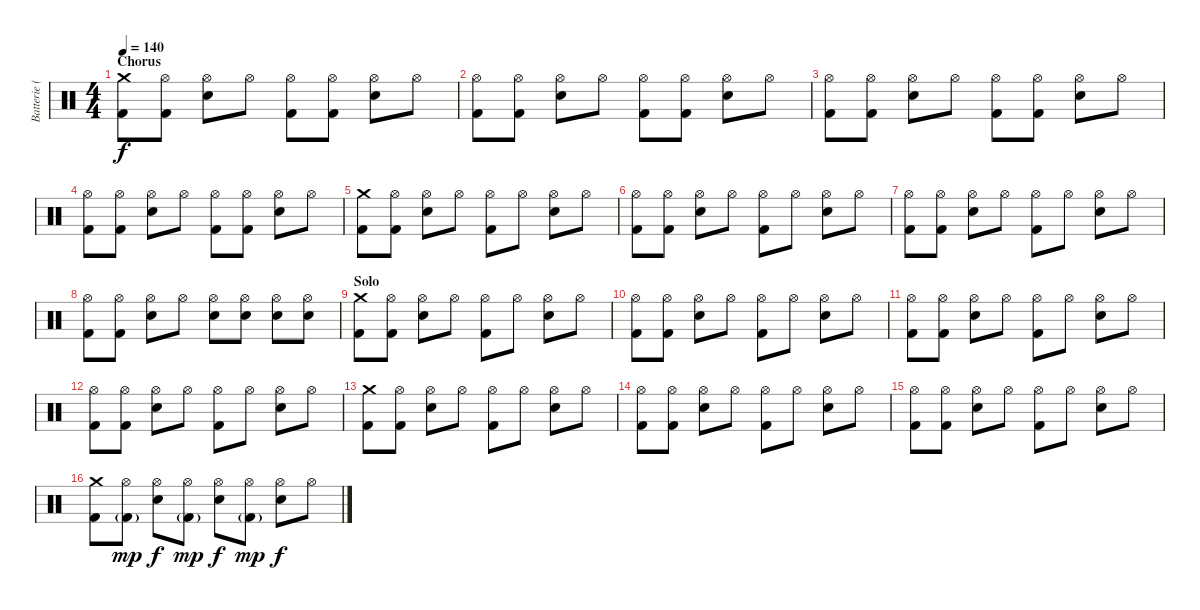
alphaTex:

\track ("Batterie (Dave)" "Batterie (") {instrument percussion}
\staff {score}
\articulation defaults
\ts (4 4)
\section ("" "Chorus")
\tempo 140
\clef neutral
\ks c
("Crash medium (hit)" "Kick (hit) 2").8{dy f} ("Hi-Hat (open)" "Kick (hit) 2").8 ("Hi-Hat (open)" "Snare (hit) 2").8 "Hi-Hat (open)".8 ("Hi-Hat (open)" "Kick (hit) 2").8 ("Hi-Hat (open)" "Kick (hit) 2").8 ("Hi-Hat (open)" "Snare (hit) 2").8 "Hi-Hat (open)".8 |
("Hi-Hat (open)" "Kick (hit) 2").8 ("Hi-Hat (open)" "Kick (hit) 2").8 ("Hi-Hat (open)" "Snare (hit) 2").8 "Hi-Hat (open)".8 ("Hi-Hat (open)" "Kick (hit) 2").8 ("Hi-Hat (open)" "Kick (hit) 2").8 ("Hi-Hat (open)" "Snare (hit) 2").8 "Hi-Hat (open)".8 |
("Hi-Hat (open)" "Kick (hit) 2").8 ("Hi-Hat (open)" "Kick (hit) 2").8 ("Hi-Hat (open)" "Snare (hit) 2").8 "Hi-Hat (open)".8 ("Hi-Hat (open)" "Kick (hit) 2").8 ("Hi-Hat (open)" "Kick (hit) 2").8 ("Hi-Hat (open)" "Snare (hit) 2").8 "Hi-Hat (open)".8 |
("Hi-Hat (open)" "Kick (hit) 2").8 ("Hi-Hat (open)" "Kick (hit) 2").8 ("Hi-Hat (open)" "Snare (hit) 2").8 "Hi-Hat (open)".8 ("Hi-Hat (open)" "Kick (hit) 2").8 ("Hi-Hat (open)" "Kick (hit) 2").8 ("Hi-Hat (open)" "Snare (hit) 2").8 "Hi-Hat (open)".8 |
("Crash medium (hit)" "Kick (hit) 2").8 ("Hi-Hat (open)" "Kick (hit) 2").8 ("Hi-Hat (open)" "Snare (hit) 2").8 "Hi-Hat (open)".8 ("Hi-Hat (open)" "Kick (hit) 2").8 "Hi-Hat (open)".8 ("Hi-Hat (open)" "Snare (hit) 2").8 "Hi-Hat (open)".8 |
("Hi-Hat (open)" "Kick (hit) 2").8 ("Hi-Hat (open)" "Kick (hit) 2").8 ("Hi-Hat (open)" "Snare (hit) 2").8 "Hi-Hat (open)".8 ("Hi-Hat (open)" "Kick (hit) 2").8 "Hi-Hat (open)".8 ("Hi-Hat (open)" "Snare (hit) 2").8 "Hi-Hat (open)".8 |
("Hi-Hat (open)" "Kick (hit) 2").8 ("Hi-Hat (open)" "Kick (hit) 2").8 ("Hi-Hat (open)" "Snare (hit) 2").8 "Hi-Hat (open)".8 ("Hi-Hat (open)" "Kick (hit) 2").8 "Hi-Hat (open)".8 ("Hi-Hat (open)" "Snare (hit) 2").8 "Hi-Hat (open)".8 |
("Hi-Hat (open)" "Kick (hit) 2").8 ("Hi-Hat (open)" "Kick (hit) 2").8 ("Hi-Hat (open)" "Snare (hit) 2").8 "Hi-Hat (open)".8 ("Hi-Hat (open)" "Electric Snare (hit)").8 ("Hi-Hat (open)" "Electric Snare (hit)").8 ("Hi-Hat (open)" "Electric Snare (hit)").8 ("Hi-Hat (open)" "Electric Snare (hit)").8 |
\section ("" "Solo")
("Crash medium (hit)" "Kick (hit) 2").8 ("Hi-Hat (open)" "Kick (hit) 2").8 ("Hi-Hat (open)" "Snare (hit) 2").8 "Hi-Hat (open)".8 ("Hi-Hat (open)" "Kick (hit) 2").8 "Hi-Hat (open)".8 ("Hi-Hat (open)" "Snare (hit) 2").8 "Hi-Hat (open)".8 |
("Hi-Hat (open)" "Kick (hit) 2").8 ("Hi-Hat (open)" "Kick (hit) 2").8 ("Hi-Hat (open)" "Snare (hit) 2").8 "Hi-Hat (open)".8 ("Hi-Hat (open)" "Kick (hit) 2").8 "Hi-Hat (open)".8 ("Hi-Hat (open)" "Snare (hit) 2").8 "Hi-Hat (open)".8 |
("Hi-Hat (open)" "Kick (hit) 2").8 ("Hi-Hat (open)" "Kick (hit) 2").8 ("Hi-Hat (open)" "Snare (hit) 2").8 "Hi-Hat (open)".8 ("Hi-Hat (open)" "Kick (hit) 2").8 "Hi-Hat (open)".8 ("Hi-Hat (open)" "Snare (hit) 2").8 "Hi-Hat (open)".8 |
("Hi-Hat (open)" "Kick (hit) 2").8 ("Hi-Hat (open)" "Kick (hit) 2").8 ("Hi-Hat (open)" "Snare (hit) 2").8 "Hi-Hat (open)".8 ("Hi-Hat (open)" "Kick (hit) 2").8 "Hi-Hat (open)".8 ("Hi-Hat (open)" "Snare (hit) 2").8 "Hi-Hat (open)".8 |
("Crash medium (hit)" "Kick (hit) 2").8 ("Hi-Hat (open)" "Kick (hit) 2").8 ("Hi-Hat (open)" "Snare (hit) 2").8 "Hi-Hat (open)".8 ("Hi-Hat (open)" "Kick (hit) 2").8 "Hi-Hat (open)".8 ("Hi-Hat (open)" "Snare (hit) 2").8 "Hi-Hat (open)".8 |
("Hi-Hat (open)" "Kick (hit) 2").8 ("Hi-Hat (open)" "Kick (hit) 2").8 ("Hi-Hat (open)" "Snare (hit) 2").8 "Hi-Hat (open)".8 ("Hi-Hat (open)" "Kick (hit) 2").8 "Hi-Hat (open)".8 ("Hi-Hat (open)" "Snare (hit) 2").8 "Hi-Hat (open)".8 |
("Hi-Hat (open)" "Kick (hit) 2").8 ("Hi-Hat (open)" "Kick (hit) 2").8 ("Hi-Hat (open)" "Snare (hit) 2").8 "Hi-Hat (open)".8 ("Hi-Hat (open)" "Kick (hit) 2").8 "Hi-Hat (open)".8 ("Hi-Hat (open)" "Snare (hit) 2").8 "Hi-Hat (open)".8 |
("Crash medium (hit)" "Kick (hit) 2").8 ("Hi-Hat (open)" "Kick (hit) 2"{g}).8{dy mp} ("Hi-Hat (open)" "Snare (hit) 2").8{dy f} ("Hi-Hat (open)" "Kick (hit) 2"{g}).8{dy mp} ("Hi-Hat (open)" "Snare (hit) 2").8{dy f} ("Hi-Hat (open)" "Kick (hit) 2"{g}).8{dy mp} ("Hi-Hat (open)" "Snare (hit) 2").8{dy f} "Hi-Hat (open)".8
